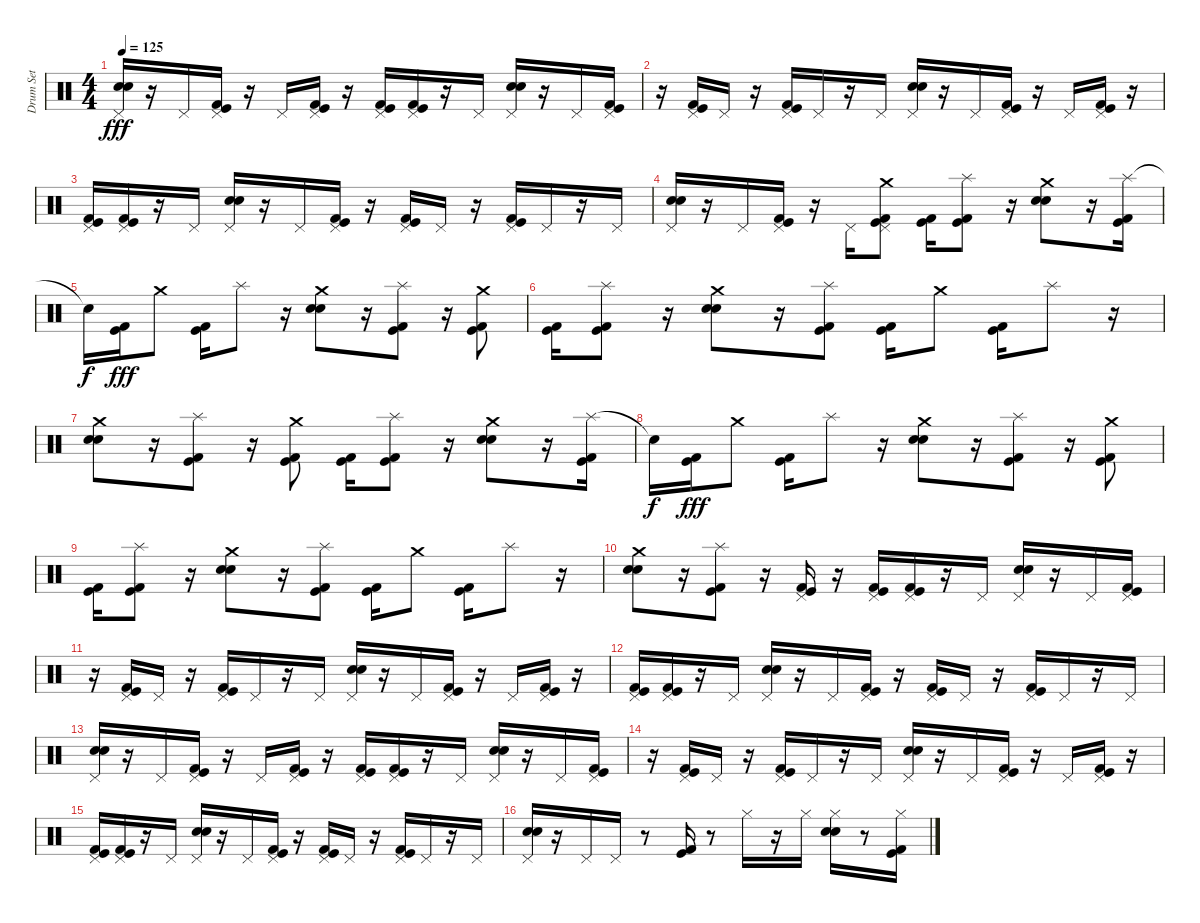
\track ("Drum Set" "Drum Set") {instrument percussion}
\staff {score}
\articulation defaults
\ts (4 4)
\tempo 125
\clef neutral
\ks c
("Electric Snare (hit)" "Snare (hit) 2" "Pedal Hi-Hat (hit)").16{dy fff} r.16 "Pedal Hi-Hat (hit)".16 ("Kick (hit)" "Kick (hit) 2" "Pedal Hi-Hat (hit)").16 r.16 "Pedal Hi-Hat (hit)".16 ("Pedal Hi-Hat (hit)" "Kick (hit) 2" "Kick (hit)").16 r.16 ("Kick (hit)" "Kick (hit) 2" "Pedal Hi-Hat (hit)").16 ("Kick (hit) 2" "Kick (hit)" "Pedal Hi-Hat (hit)").16 r.16 "Pedal Hi-Hat (hit)".16 ("Electric Snare (hit)" "Snare (hit) 2" "Pedal Hi-Hat (hit)").16 r.16 "Pedal Hi-Hat (hit)".16 ("Kick (hit)" "Kick (hit) 2" "Pedal Hi-Hat (hit)").16 |
r.16 ("Kick (hit)" "Kick (hit) 2" "Pedal Hi-Hat (hit)").16 "Pedal Hi-Hat (hit)".16 r.16 ("Kick (hit)" "Kick (hit) 2" "Pedal Hi-Hat (hit)").16 "Pedal Hi-Hat (hit)".16 r.16 "Pedal Hi-Hat (hit)".16 ("Electric Snare (hit)" "Snare (hit) 2" "Pedal Hi-Hat (hit)").16 r.16 "Pedal Hi-Hat (hit)".16 ("Kick (hit)" "Kick (hit) 2" "Pedal Hi-Hat (hit)").16 r.16 "Pedal Hi-Hat (hit)".16 ("Pedal Hi-Hat (hit)" "Kick (hit) 2" "Kick (hit)").16 r.16 |
("Kick (hit)" "Kick (hit) 2" "Pedal Hi-Hat (hit)").16 ("Kick (hit) 2" "Kick (hit)" "Pedal Hi-Hat (hit)").16 r.16 "Pedal Hi-Hat (hit)".16 ("Electric Snare (hit)" "Snare (hit) 2" "Pedal Hi-Hat (hit)").16 r.16 "Pedal Hi-Hat (hit)".16 ("Kick (hit)" "Kick (hit) 2" "Pedal Hi-Hat (hit)").16 r.16 ("Kick (hit)" "Kick (hit) 2" "Pedal Hi-Hat (hit)").16 "Pedal Hi-Hat (hit)".16 r.16 ("Pedal Hi-Hat (hit)" "Kick (hit)" "Kick (hit) 2").16 "Pedal Hi-Hat (hit)".16 r.16 "Pedal Hi-Hat (hit)".16 |
("Pedal Hi-Hat (hit)" "Electric Snare (hit)" "Snare (hit) 2").16 r.16 "Pedal Hi-Hat (hit)".16 ("Pedal Hi-Hat (hit)" "Kick (hit)" "Kick (hit) 2").16 r.16 "Pedal Hi-Hat (hit)".16 ("Crash medium (hit)" "Pedal Hi-Hat (hit)" "Kick (hit) 2" "Kick (hit)").8 ("Kick (hit)" "Kick (hit) 2").16 ("Splash (hit)" "Kick (hit) 2" "Kick (hit)").8 r.16 ("Crash medium (hit)" "Electric Snare (hit)" "Snare (hit) 2").8 r.16 ("Splash (hit)" "Kick (hit)" "Kick (hit) 2").16 |
"Snare (hit)"{t}.16{dy f} ("Kick (hit)" "Kick (hit) 2").16{dy fff} "Crash medium (hit)".8 ("Kick (hit)" "Kick (hit) 2").16 "Splash (hit)".8 r.16 ("Electric Snare (hit)" "Snare (hit) 2" "Crash medium (hit)").8 r.16 ("Kick (hit)" "Kick (hit) 2" "Splash (hit)").8 r.16 ("Crash medium (hit)" "Kick (hit) 2" "Kick (hit)").8 |
("Kick (hit)" "Kick (hit) 2").16 ("Splash (hit)" "Kick (hit) 2" "Kick (hit)").8 r.16 ("Crash medium (hit)" "Electric Snare (hit)" "Snare (hit) 2").8 r.16 ("Splash (hit)" "Kick (hit)" "Kick (hit) 2").8 ("Kick (hit)" "Kick (hit) 2").16 "Crash medium (hit)".8 ("Kick (hit)" "Kick (hit) 2").16 "Splash (hit)".8 r.16 |
("Electric Snare (hit)" "Snare (hit) 2" "Crash medium (hit)").8 r.16 ("Kick (hit)" "Kick (hit) 2" "Splash (hit)").8 r.16 ("Crash medium (hit)" "Kick (hit) 2" "Kick (hit)").8 ("Kick (hit)" "Kick (hit) 2").16 ("Splash (hit)" "Kick (hit) 2" "Kick (hit)").8 r.16 ("Crash medium (hit)" "Electric Snare (hit)" "Snare (hit) 2").8 r.16 ("Splash (hit)" "Kick (hit)" "Kick (hit) 2").16 |
"Snare (hit)"{t}.16{dy f} ("Kick (hit)" "Kick (hit) 2").16{dy fff} "Crash medium (hit)".8 ("Kick (hit)" "Kick (hit) 2").16 "Splash (hit)".8 r.16 ("Electric Snare (hit)" "Snare (hit) 2" "Crash medium (hit)").8 r.16 ("Kick (hit)" "Kick (hit) 2" "Splash (hit)").8 r.16 ("Crash medium (hit)" "Kick (hit) 2" "Kick (hit)").8 |
("Kick (hit)" "Kick (hit) 2").16 ("Splash (hit)" "Kick (hit) 2" "Kick (hit)").8 r.16 ("Crash medium (hit)" "Electric Snare (hit)" "Snare (hit) 2").8 r.16 ("Splash (hit)" "Kick (hit)" "Kick (hit) 2").8 ("Kick (hit)" "Kick (hit) 2").16 "Crash medium (hit)".8 ("Kick (hit)" "Kick (hit) 2").16 "Splash (hit)".8 r.16 |
("Electric Snare (hit)" "Snare (hit) 2" "Crash medium (hit)").8 r.16 ("Kick (hit)" "Kick (hit) 2" "Splash (hit)").8 r.16 ("Kick (hit) 2" "Kick (hit)" "Pedal Hi-Hat (hit)").16 r.16 ("Kick (hit)" "Kick (hit) 2" "Pedal Hi-Hat (hit)").16 ("Kick (hit) 2" "Kick (hit)" "Pedal Hi-Hat (hit)").16 r.16 "Pedal Hi-Hat (hit)".16 ("Electric Snare (hit)" "Snare (hit) 2" "Pedal Hi-Hat (hit)").16 r.16 "Pedal Hi-Hat (hit)".16 ("Kick (hit)" "Kick (hit) 2" "Pedal Hi-Hat (hit)").16 |
r.16 ("Kick (hit)" "Kick (hit) 2" "Pedal Hi-Hat (hit)").16 "Pedal Hi-Hat (hit)".16 r.16 ("Kick (hit)" "Kick (hit) 2" "Pedal Hi-Hat (hit)").16 "Pedal Hi-Hat (hit)".16 r.16 "Pedal Hi-Hat (hit)".16 ("Electric Snare (hit)" "Snare (hit) 2" "Pedal Hi-Hat (hit)").16 r.16 "Pedal Hi-Hat (hit)".16 ("Kick (hit)" "Kick (hit) 2" "Pedal Hi-Hat (hit)").16 r.16 "Pedal Hi-Hat (hit)".16 ("Pedal Hi-Hat (hit)" "Kick (hit) 2" "Kick (hit)").16 r.16 |
("Kick (hit)" "Kick (hit) 2" "Pedal Hi-Hat (hit)").16 ("Kick (hit) 2" "Kick (hit)" "Pedal Hi-Hat (hit)").16 r.16 "Pedal Hi-Hat (hit)".16 ("Electric Snare (hit)" "Snare (hit) 2" "Pedal Hi-Hat (hit)").16 r.16 "Pedal Hi-Hat (hit)".16 ("Kick (hit)" "Kick (hit) 2" "Pedal Hi-Hat (hit)").16 r.16 ("Kick (hit)" "Kick (hit) 2" "Pedal Hi-Hat (hit)").16 "Pedal Hi-Hat (hit)".16 r.16 ("Kick (hit)" "Kick (hit) 2" "Pedal Hi-Hat (hit)").16 "Pedal Hi-Hat (hit)".16 r.16 "Pedal Hi-Hat (hit)".16 |
("Electric Snare (hit)" "Snare (hit) 2" "Pedal Hi-Hat (hit)").16 r.16 "Pedal Hi-Hat (hit)".16 ("Kick (hit)" "Kick (hit) 2" "Pedal Hi-Hat (hit)").16 r.16 "Pedal Hi-Hat (hit)".16 ("Pedal Hi-Hat (hit)" "Kick (hit) 2" "Kick (hit)").16 r.16 ("Kick (hit)" "Kick (hit) 2" "Pedal Hi-Hat (hit)").16 ("Kick (hit) 2" "Kick (hit)" "Pedal Hi-Hat (hit)").16 r.16 "Pedal Hi-Hat (hit)".16 ("Electric Snare (hit)" "Snare (hit) 2" "Pedal Hi-Hat (hit)").16 r.16 "Pedal Hi-Hat (hit)".16 ("Kick (hit)" "Kick (hit) 2" "Pedal Hi-Hat (hit)").16 |
r.16 ("Kick (hit)" "Kick (hit) 2" "Pedal Hi-Hat (hit)").16 "Pedal Hi-Hat (hit)".16 r.16 ("Kick (hit)" "Kick (hit) 2" "Pedal Hi-Hat (hit)").16 "Pedal Hi-Hat (hit)".16 r.16 "Pedal Hi-Hat (hit)".16 ("Electric Snare (hit)" "Snare (hit) 2" "Pedal Hi-Hat (hit)").16 r.16 "Pedal Hi-Hat (hit)".16 ("Kick (hit)" "Kick (hit) 2" "Pedal Hi-Hat (hit)").16 r.16 "Pedal Hi-Hat (hit)".16 ("Pedal Hi-Hat (hit)" "Kick (hit) 2" "Kick (hit)").16 r.16 |
("Kick (hit)" "Kick (hit) 2" "Pedal Hi-Hat (hit)").16 ("Kick (hit) 2" "Kick (hit)" "Pedal Hi-Hat (hit)").16 r.16 "Pedal Hi-Hat (hit)".16 ("Electric Snare (hit)" "Snare (hit) 2" "Pedal Hi-Hat (hit)").16 r.16 "Pedal Hi-Hat (hit)".16 ("Kick (hit)" "Kick (hit) 2" "Pedal Hi-Hat (hit)").16 r.16 ("Kick (hit)" "Kick (hit) 2" "Pedal Hi-Hat (hit)").16 "Pedal Hi-Hat (hit)".16 r.16 ("Kick (hit)" "Kick (hit) 2" "Pedal Hi-Hat (hit)").16 "Pedal Hi-Hat (hit)".16 r.16 "Pedal Hi-Hat (hit)".16 |
("Electric Snare (hit)" "Snare (hit) 2" "Pedal Hi-Hat (hit)").16 r.16 "Pedal Hi-Hat (hit)".16 "Pedal Hi-Hat (hit)".16 r.8 ("Kick (hit) 2" "Kick (hit)").16 r.8 "Hi-Hat (closed)".16 r.16 "Hi-Hat (closed)".16 ("Hi-Hat (closed)" "Electric Snare (hit)" "Snare (hit) 2").16 r.8 ("Hi-Hat (closed)" "Kick (hit) 2" "Kick (hit)").16
